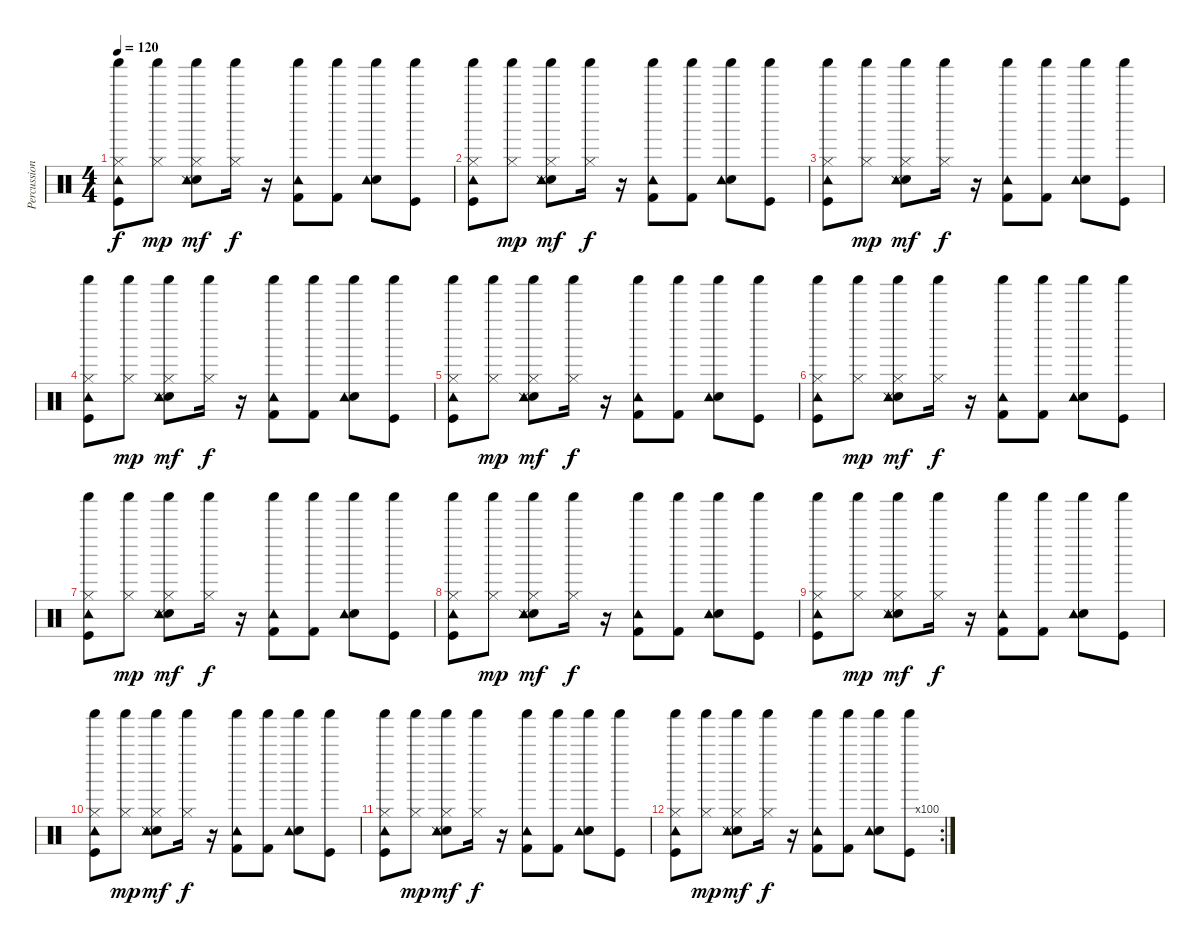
\track ("Percussion" "Percussion") {instrument percussion}
\staff {score}
\articulation defaults
\ts (4 4)
\tempo 120
\clef neutral
\ks c
("Kick (hit)" "Shaker (hit)" "Hi-Hat (closed)" "Tambourine (hit)").8{dy f} ("Shaker (hit)" "Hi-Hat (closed)").8{dy mp} ("Electric Snare (hit)" "Snare (side stick) 3" "Shaker (hit)" "Hi-Hat (closed)" "Tambourine (hit)").8{dy mf} ("Shaker (hit)" "Hi-Hat (closed)").16{dy f} r.16 ("Kick (hit) 2" "Shaker (hit)" "Tambourine (hit)").8 ("Kick (hit) 2" "Shaker (hit)").8 ("Electric Snare (hit)" "Shaker (hit)" "Tambourine (hit)").8 ("Kick (hit)" "Shaker (hit)").8 |
("Kick (hit)" "Shaker (hit)" "Hi-Hat (closed)" "Tambourine (hit)").8 ("Shaker (hit)" "Hi-Hat (closed)").8{dy mp} ("Electric Snare (hit)" "Snare (side stick) 3" "Shaker (hit)" "Hi-Hat (closed)" "Tambourine (hit)").8{dy mf} ("Shaker (hit)" "Hi-Hat (closed)").16{dy f} r.16 ("Kick (hit) 2" "Shaker (hit)" "Tambourine (hit)").8 ("Kick (hit) 2" "Shaker (hit)").8 ("Electric Snare (hit)" "Shaker (hit)" "Tambourine (hit)").8 ("Kick (hit)" "Shaker (hit)").8 |
("Kick (hit)" "Shaker (hit)" "Hi-Hat (closed)" "Tambourine (hit)").8 ("Shaker (hit)" "Hi-Hat (closed)").8{dy mp} ("Electric Snare (hit)" "Snare (side stick) 3" "Shaker (hit)" "Hi-Hat (closed)" "Tambourine (hit)").8{dy mf} ("Shaker (hit)" "Hi-Hat (closed)").16{dy f} r.16 ("Kick (hit) 2" "Shaker (hit)" "Tambourine (hit)").8 ("Kick (hit) 2" "Shaker (hit)").8 ("Electric Snare (hit)" "Shaker (hit)" "Tambourine (hit)").8 ("Kick (hit)" "Shaker (hit)").8 |
("Kick (hit)" "Shaker (hit)" "Hi-Hat (closed)" "Tambourine (hit)").8 ("Shaker (hit)" "Hi-Hat (closed)").8{dy mp} ("Electric Snare (hit)" "Snare (side stick) 3" "Shaker (hit)" "Hi-Hat (closed)" "Tambourine (hit)").8{dy mf} ("Shaker (hit)" "Hi-Hat (closed)").16{dy f} r.16 ("Kick (hit) 2" "Shaker (hit)" "Tambourine (hit)").8 ("Kick (hit) 2" "Shaker (hit)").8 ("Electric Snare (hit)" "Shaker (hit)" "Tambourine (hit)").8 ("Kick (hit)" "Shaker (hit)").8 |
("Kick (hit)" "Shaker (hit)" "Hi-Hat (closed)" "Tambourine (hit)").8 ("Shaker (hit)" "Hi-Hat (closed)").8{dy mp} ("Electric Snare (hit)" "Snare (side stick) 3" "Shaker (hit)" "Hi-Hat (closed)" "Tambourine (hit)").8{dy mf} ("Shaker (hit)" "Hi-Hat (closed)").16{dy f} r.16 ("Kick (hit) 2" "Shaker (hit)" "Tambourine (hit)").8 ("Kick (hit) 2" "Shaker (hit)").8 ("Electric Snare (hit)" "Shaker (hit)" "Tambourine (hit)").8 ("Kick (hit)" "Shaker (hit)").8 |
("Kick (hit)" "Shaker (hit)" "Hi-Hat (closed)" "Tambourine (hit)").8 ("Shaker (hit)" "Hi-Hat (closed)").8{dy mp} ("Electric Snare (hit)" "Snare (side stick) 3" "Shaker (hit)" "Hi-Hat (closed)" "Tambourine (hit)").8{dy mf} ("Shaker (hit)" "Hi-Hat (closed)").16{dy f} r.16 ("Kick (hit) 2" "Shaker (hit)" "Tambourine (hit)").8 ("Kick (hit) 2" "Shaker (hit)").8 ("Electric Snare (hit)" "Shaker (hit)" "Tambourine (hit)").8 ("Kick (hit)" "Shaker (hit)").8 |
("Kick (hit)" "Shaker (hit)" "Hi-Hat (closed)" "Tambourine (hit)").8 ("Shaker (hit)" "Hi-Hat (closed)").8{dy mp} ("Electric Snare (hit)" "Snare (side stick) 3" "Shaker (hit)" "Hi-Hat (closed)" "Tambourine (hit)").8{dy mf} ("Shaker (hit)" "Hi-Hat (closed)").16{dy f} r.16 ("Kick (hit) 2" "Shaker (hit)" "Tambourine (hit)").8 ("Kick (hit) 2" "Shaker (hit)").8 ("Electric Snare (hit)" "Shaker (hit)" "Tambourine (hit)").8 ("Kick (hit)" "Shaker (hit)").8 |
("Kick (hit)" "Shaker (hit)" "Hi-Hat (closed)" "Tambourine (hit)").8 ("Shaker (hit)" "Hi-Hat (closed)").8{dy mp} ("Electric Snare (hit)" "Snare (side stick) 3" "Shaker (hit)" "Hi-Hat (closed)" "Tambourine (hit)").8{dy mf} ("Shaker (hit)" "Hi-Hat (closed)").16{dy f} r.16 ("Kick (hit) 2" "Shaker (hit)" "Tambourine (hit)").8 ("Kick (hit) 2" "Shaker (hit)").8 ("Electric Snare (hit)" "Shaker (hit)" "Tambourine (hit)").8 ("Kick (hit)" "Shaker (hit)").8 |
("Kick (hit)" "Shaker (hit)" "Hi-Hat (closed)" "Tambourine (hit)").8 ("Shaker (hit)" "Hi-Hat (closed)").8{dy mp} ("Electric Snare (hit)" "Snare (side stick) 3" "Shaker (hit)" "Hi-Hat (closed)" "Tambourine (hit)").8{dy mf} ("Shaker (hit)" "Hi-Hat (closed)").16{dy f} r.16 ("Kick (hit) 2" "Shaker (hit)" "Tambourine (hit)").8 ("Kick (hit) 2" "Shaker (hit)").8 ("Electric Snare (hit)" "Shaker (hit)" "Tambourine (hit)").8 ("Kick (hit)" "Shaker (hit)").8 |
("Kick (hit)" "Shaker (hit)" "Hi-Hat (closed)" "Tambourine (hit)").8 ("Shaker (hit)" "Hi-Hat (closed)").8{dy mp} ("Electric Snare (hit)" "Snare (side stick) 3" "Shaker (hit)" "Hi-Hat (closed)" "Tambourine (hit)").8{dy mf} ("Shaker (hit)" "Hi-Hat (closed)").16{dy f} r.16 ("Kick (hit) 2" "Shaker (hit)" "Tambourine (hit)").8 ("Kick (hit) 2" "Shaker (hit)").8 ("Electric Snare (hit)" "Shaker (hit)" "Tambourine (hit)").8 ("Kick (hit)" "Shaker (hit)").8 |
("Kick (hit)" "Shaker (hit)" "Hi-Hat (closed)" "Tambourine (hit)").8 ("Shaker (hit)" "Hi-Hat (closed)").8{dy mp} ("Electric Snare (hit)" "Snare (side stick) 3" "Shaker (hit)" "Hi-Hat (closed)" "Tambourine (hit)").8{dy mf} ("Shaker (hit)" "Hi-Hat (closed)").16{dy f} r.16 ("Kick (hit) 2" "Shaker (hit)" "Tambourine (hit)").8 ("Kick (hit) 2" "Shaker (hit)").8 ("Electric Snare (hit)" "Shaker (hit)" "Tambourine (hit)").8 ("Kick (hit)" "Shaker (hit)").8 |
\rc 100
("Kick (hit)" "Shaker (hit)" "Hi-Hat (closed)" "Tambourine (hit)").8 ("Shaker (hit)" "Hi-Hat (closed)").8{dy mp} ("Electric Snare (hit)" "Snare (side stick) 3" "Shaker (hit)" "Hi-Hat (closed)" "Tambourine (hit)").8{dy mf} ("Shaker (hit)" "Hi-Hat (closed)").16{dy f} r.16 ("Kick (hit) 2" "Shaker (hit)" "Tambourine (hit)").8 ("Kick (hit) 2" "Shaker (hit)").8 ("Electric Snare (hit)" "Shaker (hit)" "Tambourine (hit)").8 ("Kick (hit)" "Shaker (hit)").8
